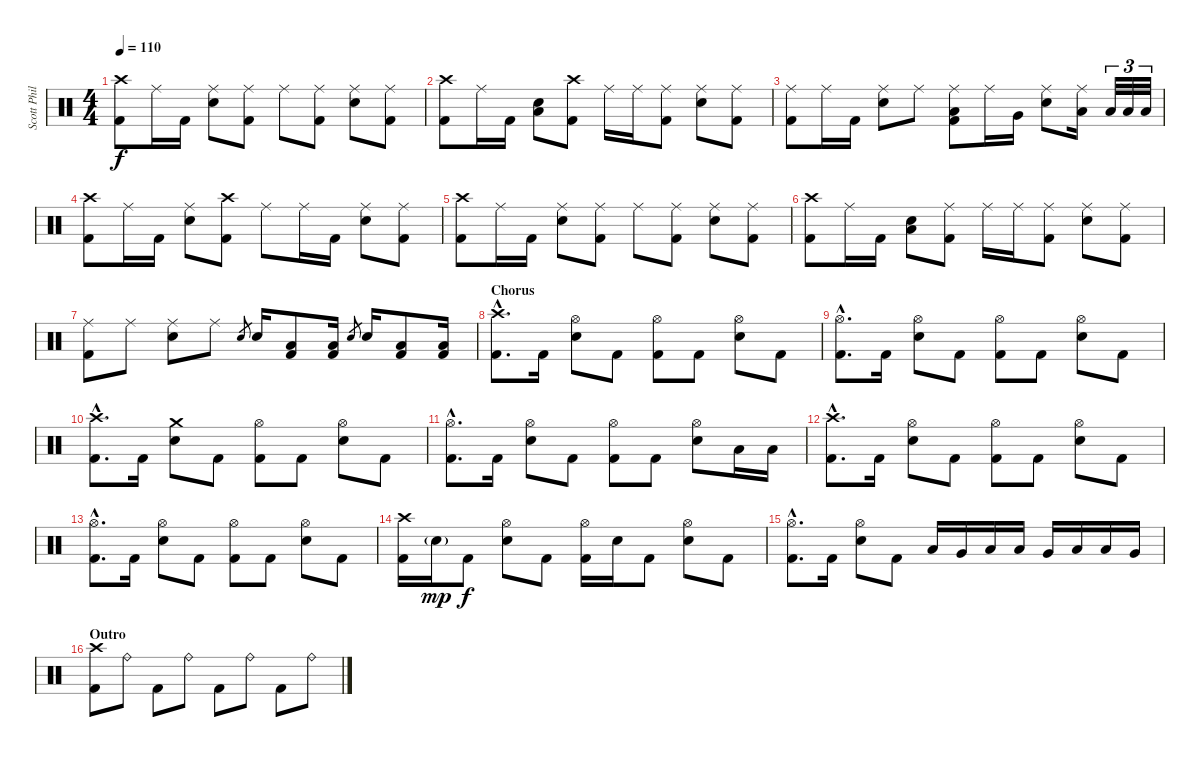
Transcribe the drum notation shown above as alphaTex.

\track ("Scott Phillips" "Scott Phil") {instrument percussion}
\staff {score}
\articulation defaults
\ts (4 4)
\tempo 110
\clef neutral
\ks c
("Crash high (hit)" "Kick (hit) 2").8{dy f} "Ride (middle)".16 "Kick (hit) 2".16 ("Ride (middle)" "Electric Snare (hit)").8 ("Ride (middle)" "Kick (hit) 2").8 "Ride (middle)".8 ("Ride (middle)" "Kick (hit) 2").8 ("Ride (middle)" "Electric Snare (hit)").8 ("Ride (middle)" "Kick (hit) 2").8 |
("Crash high (hit)" "Kick (hit) 2").8 "Ride (middle)".16 "Kick (hit) 2".16 ("Low Tom (hit)" "Electric Snare (hit)").8 ("Crash high (hit)" "Kick (hit) 2").8 "Ride (middle)".16 "Ride (middle)".16 ("Ride (middle)" "Kick (hit) 2").8 ("Ride (middle)" "Electric Snare (hit)").8 ("Ride (middle)" "Kick (hit) 2").8 |
("Ride (middle)" "Kick (hit) 2").8 "Ride (middle)".16 "Kick (hit) 2".16 ("Ride (middle)" "Electric Snare (hit)").8 "Ride (middle)".8 ("Ride (middle)" "Low Tom (hit)" "Kick (hit) 2").8 "Ride (middle)".16 "Very Low Tom (hit)".16 ("Ride (middle)" "Electric Snare (hit)").8 ("Ride (middle)" "Low Tom (hit)").16 "Low Tom (hit)".32{tu (3 2)} "Low Tom (hit)".32{tu (3 2)} "Low Tom (hit)".32{tu (3 2)} |
("Crash high (hit)" "Kick (hit) 2").8 "Ride (middle)".16 "Kick (hit) 2".16 ("Ride (middle)" "Electric Snare (hit)").8 ("Crash high (hit)" "Kick (hit) 2").8 "Ride (middle)".8 "Ride (middle)".16 "Kick (hit) 2".16 ("Ride (middle)" "Electric Snare (hit)").8 ("Ride (middle)" "Kick (hit) 2").8 |
("Crash high (hit)" "Kick (hit) 2").8 "Ride (middle)".16 "Kick (hit) 2".16 ("Ride (middle)" "Electric Snare (hit)").8 ("Ride (middle)" "Kick (hit) 2").8 "Ride (middle)".8 ("Ride (middle)" "Kick (hit) 2").8 ("Ride (middle)" "Electric Snare (hit)").8 ("Ride (middle)" "Kick (hit) 2").8 |
("Crash high (hit)" "Kick (hit) 2").8 "Ride (middle)".16 "Kick (hit) 2".16 ("Low Tom (hit)" "Electric Snare (hit)").8 ("Ride (middle)" "Kick (hit) 2").8 "Ride (middle)".16 "Ride (middle)".16 ("Ride (middle)" "Kick (hit) 2").8 ("Ride (middle)" "Electric Snare (hit)").8 ("Ride (middle)" "Kick (hit) 2").8 |
("Ride (middle)" "Kick (hit) 2").8 "Ride (middle)".8 ("Ride (middle)" "Electric Snare (hit)").8 "Ride (middle)".8 "Electric Snare (hit)".8{gr} "Electric Snare (hit)".16 ("Low Floor Tom (hit)" "Kick (hit) 2").8 ("Low Floor Tom (hit)" "Kick (hit) 2").16 "Electric Snare (hit)".8{gr} "Electric Snare (hit)".16 ("Low Floor Tom (hit)" "Kick (hit) 2").8 ("Low Floor Tom (hit)" "Kick (hit) 2").16 |
\section ("" "Chorus")
("Crash high (hit)"{hac} "Kick (hit) 2"{hac}).8{d} "Kick (hit) 2".16 ("Hi-Hat (open)" "Electric Snare (hit)").8 "Kick (hit) 2".8 ("Hi-Hat (open)" "Kick (hit) 2").8 "Kick (hit) 2".8 ("Hi-Hat (open)" "Electric Snare (hit)").8 "Kick (hit) 2".8 |
("Hi-Hat (open)"{hac} "Kick (hit) 2"{hac}).8{d} "Kick (hit) 2".16 ("Hi-Hat (open)" "Electric Snare (hit)").8 "Kick (hit) 2".8 ("Hi-Hat (open)" "Kick (hit) 2").8 "Kick (hit) 2".8 ("Hi-Hat (open)" "Electric Snare (hit)").8 "Kick (hit) 2".8 |
("Crash high (hit)"{hac} "Kick (hit) 2"{hac}).8{d} "Kick (hit) 2".16 ("Crash medium (hit)" "Electric Snare (hit)").8 "Kick (hit) 2".8 ("Hi-Hat (open)" "Kick (hit) 2").8 "Kick (hit) 2".8 ("Hi-Hat (open)" "Electric Snare (hit)").8 "Kick (hit) 2".8 |
("Hi-Hat (open)"{hac} "Kick (hit) 2"{hac}).8{d} "Kick (hit) 2".16 ("Hi-Hat (open)" "Electric Snare (hit)").8 "Kick (hit) 2".8 ("Hi-Hat (open)" "Kick (hit) 2").8 "Kick (hit) 2".8 ("Hi-Hat (open)" "Electric Snare (hit)").8 "Low Tom (hit)".16 "Low Tom (hit)".16 |
("Crash high (hit)"{hac} "Kick (hit) 2"{hac}).8{d} "Kick (hit) 2".16 ("Hi-Hat (open)" "Electric Snare (hit)").8 "Kick (hit) 2".8 ("Hi-Hat (open)" "Kick (hit) 2").8 "Kick (hit) 2".8 ("Hi-Hat (open)" "Electric Snare (hit)").8 "Kick (hit) 2".8 |
("Hi-Hat (open)"{hac} "Kick (hit) 2"{hac}).8{d} "Kick (hit) 2".16 ("Hi-Hat (open)" "Electric Snare (hit)").8 "Kick (hit) 2".8 ("Hi-Hat (open)" "Kick (hit) 2").8 "Kick (hit) 2".8 ("Hi-Hat (open)" "Electric Snare (hit)").8 "Kick (hit) 2".8 |
("Crash high (hit)" "Kick (hit) 2").16 "Electric Snare (hit)"{g}.16{dy mp} "Kick (hit) 2".8{dy f} ("Hi-Hat (open)" "Electric Snare (hit)").8 "Kick (hit) 2".8 ("Hi-Hat (open)" "Kick (hit) 2").16 "Electric Snare (hit)".16 "Kick (hit) 2".8 ("Hi-Hat (open)" "Electric Snare (hit)").8 "Kick (hit) 2".8 |
("Hi-Hat (open)"{hac} "Kick (hit) 2"{hac}).8{d} "Kick (hit) 2".16 ("Hi-Hat (open)" "Electric Snare (hit)").8 "Kick (hit) 2".8 "Low Tom (hit)".16 "Very Low Tom (hit)".16 "Low Floor Tom (hit)".16 "Low Tom (hit)".16 "Very Low Tom (hit)".16 "Low Floor Tom (hit)".16 "Low Tom (hit)".16 "Very Low Tom (hit)".16 |
\section ("" "Outro")
("Crash high (hit)" "Kick (hit) 2").8 "Ride (bell)".8 "Kick (hit) 2".8 "Ride (bell)".8 "Kick (hit) 2".8 "Ride (bell)".8 "Kick (hit) 2".8 "Ride (bell)".8
